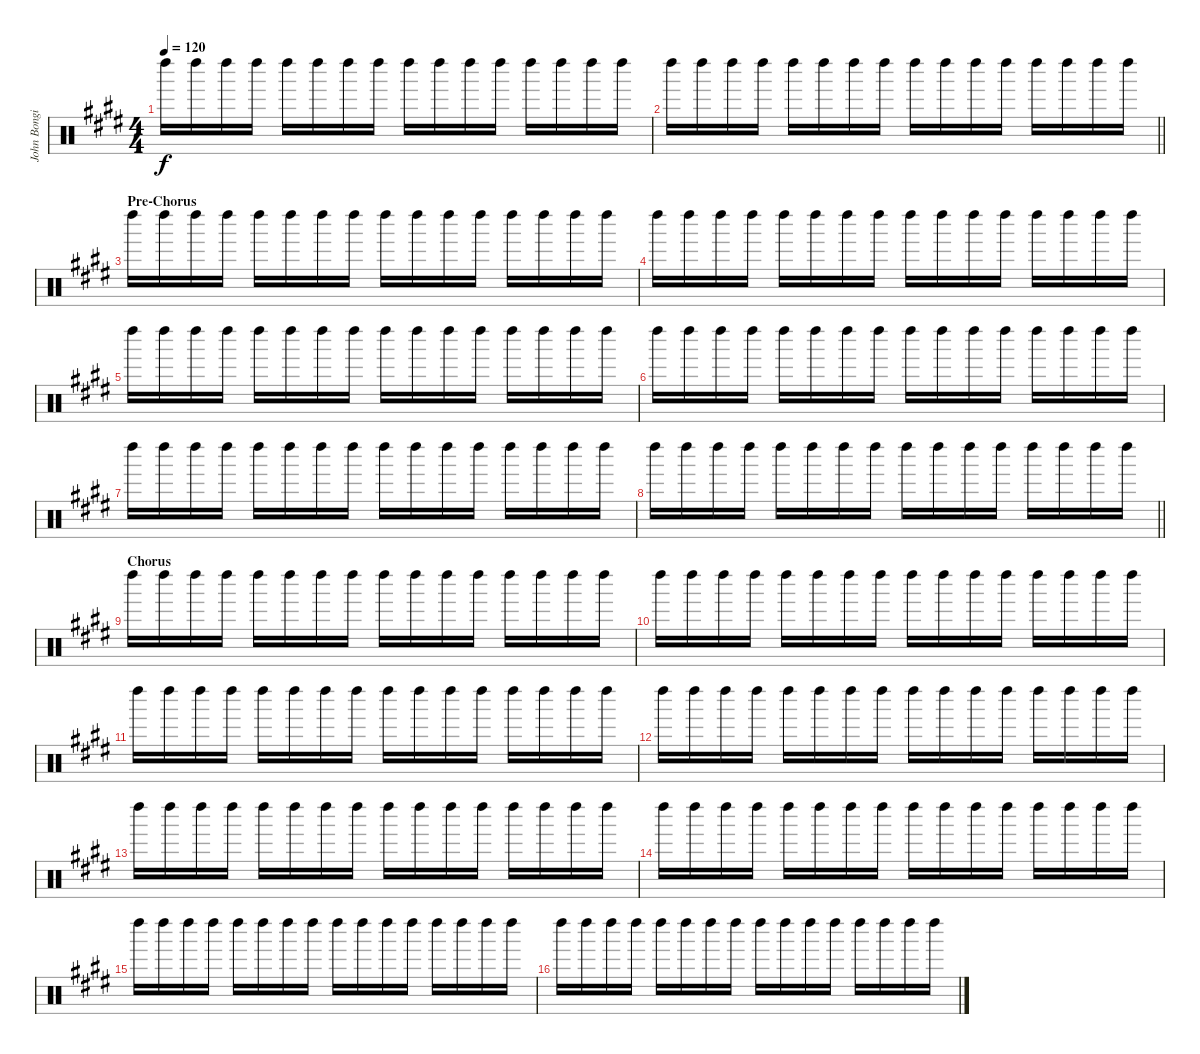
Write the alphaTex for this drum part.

\track ("John Bongiovi (Maracas)" "John Bongi") {instrument percussion}
\staff {score}
\articulation defaults
\ts (4 4)
\tempo 120
\clef neutral
\ks c#minor "Left Maraca (hit)".16{dy f} "Left Maraca (hit)".16 "Left Maraca (hit)".16 "Left Maraca (hit)".16 "Left Maraca (hit)".16 "Left Maraca (hit)".16 "Left Maraca (hit)".16 "Left Maraca (hit)".16 "Left Maraca (hit)".16 "Left Maraca (hit)".16 "Left Maraca (hit)".16 "Left Maraca (hit)".16 "Left Maraca (hit)".16 "Left Maraca (hit)".16 "Left Maraca (hit)".16 "Left Maraca (hit)".16
|
\barLineRight lightlight "Left Maraca (hit)".16 "Left Maraca (hit)".16 "Left Maraca (hit)".16 "Left Maraca (hit)".16 "Left Maraca (hit)".16 "Left Maraca (hit)".16 "Left Maraca (hit)".16 "Left Maraca (hit)".16 "Left Maraca (hit)".16 "Left Maraca (hit)".16 "Left Maraca (hit)".16 "Left Maraca (hit)".16 "Left Maraca (hit)".16 "Left Maraca (hit)".16 "Left Maraca (hit)".16 "Left Maraca (hit)".16
|
\section ("" "Pre-Chorus")
"Left Maraca (hit)".16 "Left Maraca (hit)".16 "Left Maraca (hit)".16 "Left Maraca (hit)".16 "Left Maraca (hit)".16 "Left Maraca (hit)".16 "Left Maraca (hit)".16 "Left Maraca (hit)".16 "Left Maraca (hit)".16 "Left Maraca (hit)".16 "Left Maraca (hit)".16 "Left Maraca (hit)".16 "Left Maraca (hit)".16 "Left Maraca (hit)".16 "Left Maraca (hit)".16 "Left Maraca (hit)".16 |
"Left Maraca (hit)".16 "Left Maraca (hit)".16 "Left Maraca (hit)".16 "Left Maraca (hit)".16 "Left Maraca (hit)".16 "Left Maraca (hit)".16 "Left Maraca (hit)".16 "Left Maraca (hit)".16 "Left Maraca (hit)".16 "Left Maraca (hit)".16 "Left Maraca (hit)".16 "Left Maraca (hit)".16 "Left Maraca (hit)".16 "Left Maraca (hit)".16 "Left Maraca (hit)".16 "Left Maraca (hit)".16 |
"Left Maraca (hit)".16 "Left Maraca (hit)".16 "Left Maraca (hit)".16 "Left Maraca (hit)".16 "Left Maraca (hit)".16 "Left Maraca (hit)".16 "Left Maraca (hit)".16 "Left Maraca (hit)".16 "Left Maraca (hit)".16 "Left Maraca (hit)".16 "Left Maraca (hit)".16 "Left Maraca (hit)".16 "Left Maraca (hit)".16 "Left Maraca (hit)".16 "Left Maraca (hit)".16 "Left Maraca (hit)".16 |
"Left Maraca (hit)".16 "Left Maraca (hit)".16 "Left Maraca (hit)".16 "Left Maraca (hit)".16 "Left Maraca (hit)".16 "Left Maraca (hit)".16 "Left Maraca (hit)".16 "Left Maraca (hit)".16 "Left Maraca (hit)".16 "Left Maraca (hit)".16 "Left Maraca (hit)".16 "Left Maraca (hit)".16 "Left Maraca (hit)".16 "Left Maraca (hit)".16 "Left Maraca (hit)".16 "Left Maraca (hit)".16 |
"Left Maraca (hit)".16 "Left Maraca (hit)".16 "Left Maraca (hit)".16 "Left Maraca (hit)".16 "Left Maraca (hit)".16 "Left Maraca (hit)".16 "Left Maraca (hit)".16 "Left Maraca (hit)".16 "Left Maraca (hit)".16 "Left Maraca (hit)".16 "Left Maraca (hit)".16 "Left Maraca (hit)".16 "Left Maraca (hit)".16 "Left Maraca (hit)".16 "Left Maraca (hit)".16 "Left Maraca (hit)".16 |
\barLineRight lightlight "Left Maraca (hit)".16 "Left Maraca (hit)".16 "Left Maraca (hit)".16 "Left Maraca (hit)".16 "Left Maraca (hit)".16 "Left Maraca (hit)".16 "Left Maraca (hit)".16 "Left Maraca (hit)".16 "Left Maraca (hit)".16 "Left Maraca (hit)".16 "Left Maraca (hit)".16 "Left Maraca (hit)".16 "Left Maraca (hit)".16 "Left Maraca (hit)".16 "Left Maraca (hit)".16 "Left Maraca (hit)".16
|
\section ("" "Chorus")
"Left Maraca (hit)".16 "Left Maraca (hit)".16 "Left Maraca (hit)".16 "Left Maraca (hit)".16 "Left Maraca (hit)".16 "Left Maraca (hit)".16 "Left Maraca (hit)".16 "Left Maraca (hit)".16 "Left Maraca (hit)".16 "Left Maraca (hit)".16 "Left Maraca (hit)".16 "Left Maraca (hit)".16 "Left Maraca (hit)".16 "Left Maraca (hit)".16 "Left Maraca (hit)".16 "Left Maraca (hit)".16 |
"Left Maraca (hit)".16 "Left Maraca (hit)".16 "Left Maraca (hit)".16 "Left Maraca (hit)".16 "Left Maraca (hit)".16 "Left Maraca (hit)".16 "Left Maraca (hit)".16 "Left Maraca (hit)".16 "Left Maraca (hit)".16 "Left Maraca (hit)".16 "Left Maraca (hit)".16 "Left Maraca (hit)".16 "Left Maraca (hit)".16 "Left Maraca (hit)".16 "Left Maraca (hit)".16 "Left Maraca (hit)".16 |
"Left Maraca (hit)".16 "Left Maraca (hit)".16 "Left Maraca (hit)".16 "Left Maraca (hit)".16 "Left Maraca (hit)".16 "Left Maraca (hit)".16 "Left Maraca (hit)".16 "Left Maraca (hit)".16 "Left Maraca (hit)".16 "Left Maraca (hit)".16 "Left Maraca (hit)".16 "Left Maraca (hit)".16 "Left Maraca (hit)".16 "Left Maraca (hit)".16 "Left Maraca (hit)".16 "Left Maraca (hit)".16 |
"Left Maraca (hit)".16 "Left Maraca (hit)".16 "Left Maraca (hit)".16 "Left Maraca (hit)".16 "Left Maraca (hit)".16 "Left Maraca (hit)".16 "Left Maraca (hit)".16 "Left Maraca (hit)".16 "Left Maraca (hit)".16 "Left Maraca (hit)".16 "Left Maraca (hit)".16 "Left Maraca (hit)".16 "Left Maraca (hit)".16 "Left Maraca (hit)".16 "Left Maraca (hit)".16 "Left Maraca (hit)".16 |
"Left Maraca (hit)".16 "Left Maraca (hit)".16 "Left Maraca (hit)".16 "Left Maraca (hit)".16 "Left Maraca (hit)".16 "Left Maraca (hit)".16 "Left Maraca (hit)".16 "Left Maraca (hit)".16 "Left Maraca (hit)".16 "Left Maraca (hit)".16 "Left Maraca (hit)".16 "Left Maraca (hit)".16 "Left Maraca (hit)".16 "Left Maraca (hit)".16 "Left Maraca (hit)".16 "Left Maraca (hit)".16 |
"Left Maraca (hit)".16 "Left Maraca (hit)".16 "Left Maraca (hit)".16 "Left Maraca (hit)".16 "Left Maraca (hit)".16 "Left Maraca (hit)".16 "Left Maraca (hit)".16 "Left Maraca (hit)".16 "Left Maraca (hit)".16 "Left Maraca (hit)".16 "Left Maraca (hit)".16 "Left Maraca (hit)".16 "Left Maraca (hit)".16 "Left Maraca (hit)".16 "Left Maraca (hit)".16 "Left Maraca (hit)".16 |
"Left Maraca (hit)".16 "Left Maraca (hit)".16 "Left Maraca (hit)".16 "Left Maraca (hit)".16 "Left Maraca (hit)".16 "Left Maraca (hit)".16 "Left Maraca (hit)".16 "Left Maraca (hit)".16 "Left Maraca (hit)".16 "Left Maraca (hit)".16 "Left Maraca (hit)".16 "Left Maraca (hit)".16 "Left Maraca (hit)".16 "Left Maraca (hit)".16 "Left Maraca (hit)".16 "Left Maraca (hit)".16 |
"Left Maraca (hit)".16 "Left Maraca (hit)".16 "Left Maraca (hit)".16 "Left Maraca (hit)".16 "Left Maraca (hit)".16 "Left Maraca (hit)".16 "Left Maraca (hit)".16 "Left Maraca (hit)".16 "Left Maraca (hit)".16 "Left Maraca (hit)".16 "Left Maraca (hit)".16 "Left Maraca (hit)".16 "Left Maraca (hit)".16 "Left Maraca (hit)".16 "Left Maraca (hit)".16 "Left Maraca (hit)".16
